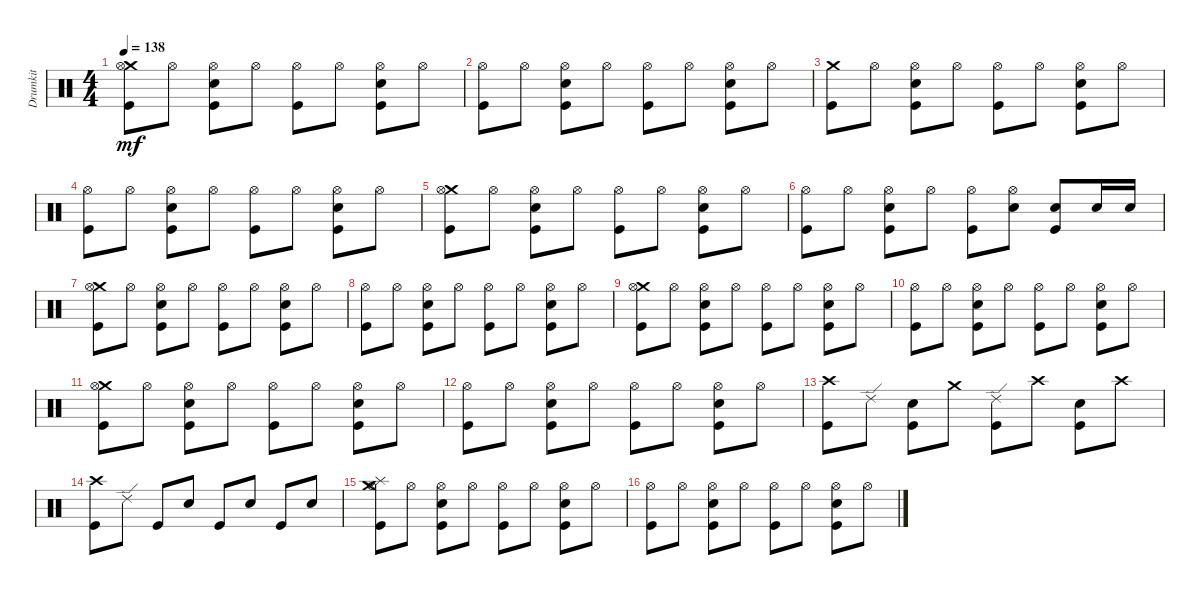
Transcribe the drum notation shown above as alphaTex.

\track ("Drumkit" "Drumkit") {instrument percussion}
\staff {score}
\articulation defaults
\ts (4 4)
\tempo 138
\clef neutral
\ks c
("Kick (hit)" "Crash medium (hit)" "Hi-Hat (open)").8{dy mf} "Hi-Hat (open)".8 ("Snare (hit) 2" "Hi-Hat (open)" "Kick (hit)").8 "Hi-Hat (open)".8 ("Kick (hit)" "Hi-Hat (open)").8 "Hi-Hat (open)".8 ("Snare (hit) 2" "Hi-Hat (open)" "Kick (hit)").8 "Hi-Hat (open)".8 |
("Kick (hit)" "Hi-Hat (open)").8 "Hi-Hat (open)".8 ("Snare (hit) 2" "Hi-Hat (open)" "Kick (hit)").8 "Hi-Hat (open)".8 ("Kick (hit)" "Hi-Hat (open)").8 "Hi-Hat (open)".8 ("Snare (hit) 2" "Hi-Hat (open)" "Kick (hit)").8 "Hi-Hat (open)".8 |
("Kick (hit)" "Crash medium (hit)").8 "Hi-Hat (open)".8 ("Snare (hit) 2" "Hi-Hat (open)" "Kick (hit)").8 "Hi-Hat (open)".8 ("Kick (hit)" "Hi-Hat (open)").8 "Hi-Hat (open)".8 ("Snare (hit) 2" "Hi-Hat (open)" "Kick (hit)").8 "Hi-Hat (open)".8 |
("Kick (hit)" "Hi-Hat (open)").8 "Hi-Hat (open)".8 ("Snare (hit) 2" "Hi-Hat (open)" "Kick (hit)").8 "Hi-Hat (open)".8 ("Kick (hit)" "Hi-Hat (open)").8 "Hi-Hat (open)".8 ("Snare (hit) 2" "Hi-Hat (open)" "Kick (hit)").8 "Hi-Hat (open)".8 |
("Kick (hit)" "Crash medium (hit)" "Hi-Hat (open)").8 "Hi-Hat (open)".8 ("Snare (hit) 2" "Hi-Hat (open)" "Kick (hit)").8 "Hi-Hat (open)".8 ("Kick (hit)" "Hi-Hat (open)").8 "Hi-Hat (open)".8 ("Snare (hit) 2" "Hi-Hat (open)" "Kick (hit)").8 "Hi-Hat (open)".8 |
("Kick (hit)" "Hi-Hat (open)").8 "Hi-Hat (open)".8 ("Snare (hit) 2" "Hi-Hat (open)" "Kick (hit)").8 "Hi-Hat (open)".8 ("Kick (hit)" "Hi-Hat (open)").8 ("Snare (hit) 2" "Hi-Hat (open)").8 ("Snare (hit) 2" "Kick (hit)").8 "Snare (hit) 2".16 "Snare (hit) 2".16 |
("Kick (hit)" "Crash medium (hit)" "Hi-Hat (open)").8 "Hi-Hat (open)".8 ("Snare (hit) 2" "Hi-Hat (open)" "Kick (hit)").8 "Hi-Hat (open)".8 ("Kick (hit)" "Hi-Hat (open)").8 "Hi-Hat (open)".8 ("Snare (hit) 2" "Hi-Hat (open)" "Kick (hit)").8 "Hi-Hat (open)".8 |
("Kick (hit)" "Hi-Hat (open)").8 "Hi-Hat (open)".8 ("Snare (hit) 2" "Hi-Hat (open)" "Kick (hit)").8 "Hi-Hat (open)".8 ("Kick (hit)" "Hi-Hat (open)").8 "Hi-Hat (open)".8 ("Snare (hit) 2" "Hi-Hat (open)" "Kick (hit)").8 "Hi-Hat (open)".8 |
("Kick (hit)" "Crash medium (hit)" "Hi-Hat (open)").8 "Hi-Hat (open)".8 ("Snare (hit) 2" "Hi-Hat (open)" "Kick (hit)").8 "Hi-Hat (open)".8 ("Kick (hit)" "Hi-Hat (open)").8 "Hi-Hat (open)".8 ("Snare (hit) 2" "Hi-Hat (open)" "Kick (hit)").8 "Hi-Hat (open)".8 |
("Kick (hit)" "Hi-Hat (open)").8 "Hi-Hat (open)".8 ("Snare (hit) 2" "Hi-Hat (open)" "Kick (hit)").8 "Hi-Hat (open)".8 ("Kick (hit)" "Hi-Hat (open)").8 "Hi-Hat (open)".8 ("Snare (hit) 2" "Hi-Hat (open)" "Kick (hit)").8 "Hi-Hat (open)".8 |
("Kick (hit)" "Crash medium (hit)" "Hi-Hat (open)").8 "Hi-Hat (open)".8 ("Snare (hit) 2" "Hi-Hat (open)" "Kick (hit)").8 "Hi-Hat (open)".8 ("Kick (hit)" "Hi-Hat (open)").8 "Hi-Hat (open)".8 ("Snare (hit) 2" "Hi-Hat (open)" "Kick (hit)").8 "Hi-Hat (open)".8 |
("Kick (hit)" "Hi-Hat (open)").8 "Hi-Hat (open)".8 ("Snare (hit) 2" "Hi-Hat (open)" "Kick (hit)").8 "Hi-Hat (open)".8 ("Kick (hit)" "Hi-Hat (open)").8 "Hi-Hat (open)".8 ("Snare (hit) 2" "Hi-Hat (open)" "Kick (hit)").8 "Hi-Hat (open)".8 |
("Crash high (hit)" "Kick (hit)").8 "Ride (edge) 2".8 ("Snare (hit) 2" "Kick (hit)").8 "Crash medium (hit)".8 ("Ride (edge) 2" "Kick (hit)").8 "Crash high (hit)".8 ("Snare (hit) 2" "Kick (hit)").8 "Crash high (hit)".8 |
("Crash high (hit)" "Kick (hit)").8 "Ride (edge) 2".8 "Kick (hit)".8 "Snare (hit) 2".8 "Kick (hit)".8 "Snare (hit) 2".8 "Kick (hit)".8 "Snare (hit) 2".8 |
("Splash (hit)" "Crash medium (hit)" "Hi-Hat (open)" "Kick (hit)").8 "Hi-Hat (open)".8 ("Snare (hit) 2" "Hi-Hat (open)" "Kick (hit)").8 "Hi-Hat (open)".8 ("Kick (hit)" "Hi-Hat (open)").8 "Hi-Hat (open)".8 ("Snare (hit) 2" "Hi-Hat (open)" "Kick (hit)").8 "Hi-Hat (open)".8 |
("Kick (hit)" "Hi-Hat (open)").8 "Hi-Hat (open)".8 ("Snare (hit) 2" "Hi-Hat (open)" "Kick (hit)").8 "Hi-Hat (open)".8 ("Kick (hit)" "Hi-Hat (open)").8 "Hi-Hat (open)".8 ("Snare (hit) 2" "Hi-Hat (open)" "Kick (hit)").8 "Hi-Hat (open)".8
